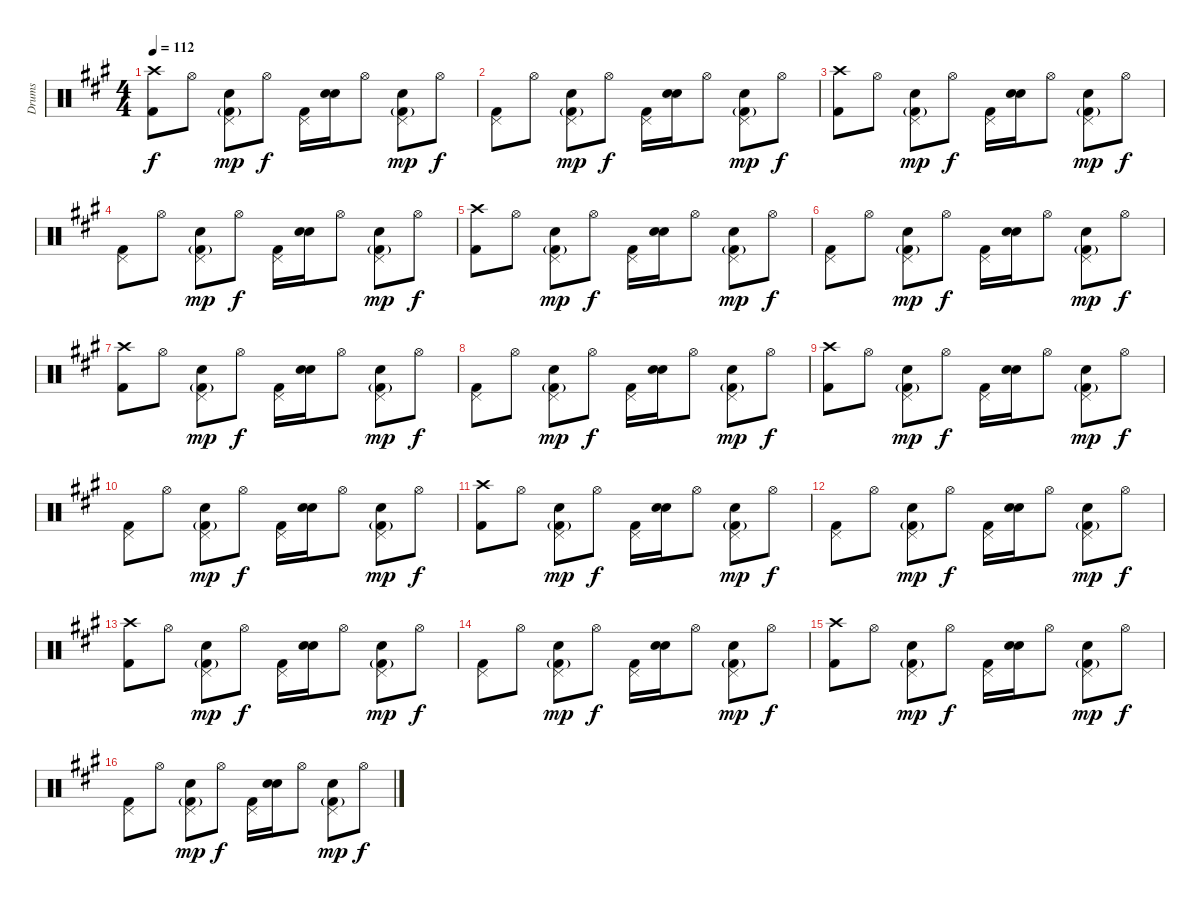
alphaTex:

\track ("Drums" "Drums") {instrument percussion}
\staff {score}
\articulation defaults
\ts (4 4)
\tempo 112
\clef neutral
\ks a
("Crash high (hit)" "Kick (hit) 2").8{dy f} "Hi-Hat (open)".8 ("Pedal Hi-Hat (hit)" "Electric Snare (hit)" "Kick (hit) 2"{g}).8{dy mp} "Hi-Hat (open)".8{dy f} ("Pedal Hi-Hat (hit)" "Kick (hit) 2").16 ("Snare (hit)"{x} "Electric Snare (hit)").16 "Hi-Hat (open)".8 ("Pedal Hi-Hat (hit)" "Electric Snare (hit)" "Kick (hit) 2"{g}).8{dy mp} "Hi-Hat (open)".8{dy f} |
("Pedal Hi-Hat (hit)" "Kick (hit) 2").8 "Hi-Hat (open)".8 ("Pedal Hi-Hat (hit)" "Electric Snare (hit)" "Kick (hit) 2"{g}).8{dy mp} "Hi-Hat (open)".8{dy f} ("Pedal Hi-Hat (hit)" "Kick (hit) 2").16 ("Snare (hit)"{x} "Electric Snare (hit)").16 "Hi-Hat (open)".8 ("Pedal Hi-Hat (hit)" "Electric Snare (hit)" "Kick (hit) 2"{g}).8{dy mp} "Hi-Hat (open)".8{dy f} |
("Crash high (hit)" "Kick (hit) 2").8 "Hi-Hat (open)".8 ("Pedal Hi-Hat (hit)" "Electric Snare (hit)" "Kick (hit) 2"{g}).8{dy mp} "Hi-Hat (open)".8{dy f} ("Pedal Hi-Hat (hit)" "Kick (hit) 2").16 ("Snare (hit)"{x} "Electric Snare (hit)").16 "Hi-Hat (open)".8 ("Pedal Hi-Hat (hit)" "Electric Snare (hit)" "Kick (hit) 2"{g}).8{dy mp} "Hi-Hat (open)".8{dy f} |
("Pedal Hi-Hat (hit)" "Kick (hit) 2").8 "Hi-Hat (open)".8 ("Pedal Hi-Hat (hit)" "Electric Snare (hit)" "Kick (hit) 2"{g}).8{dy mp} "Hi-Hat (open)".8{dy f} ("Pedal Hi-Hat (hit)" "Kick (hit) 2").16 ("Snare (hit)"{x} "Electric Snare (hit)").16 "Hi-Hat (open)".8 ("Pedal Hi-Hat (hit)" "Electric Snare (hit)" "Kick (hit) 2"{g}).8{dy mp} "Hi-Hat (open)".8{dy f} |
("Crash high (hit)" "Kick (hit) 2").8 "Hi-Hat (open)".8 ("Pedal Hi-Hat (hit)" "Electric Snare (hit)" "Kick (hit) 2"{g}).8{dy mp} "Hi-Hat (open)".8{dy f} ("Pedal Hi-Hat (hit)" "Kick (hit) 2").16 ("Snare (hit)"{x} "Electric Snare (hit)").16 "Hi-Hat (open)".8 ("Pedal Hi-Hat (hit)" "Electric Snare (hit)" "Kick (hit) 2"{g}).8{dy mp} "Hi-Hat (open)".8{dy f} |
("Pedal Hi-Hat (hit)" "Kick (hit) 2").8 "Hi-Hat (open)".8 ("Pedal Hi-Hat (hit)" "Electric Snare (hit)" "Kick (hit) 2"{g}).8{dy mp} "Hi-Hat (open)".8{dy f} ("Pedal Hi-Hat (hit)" "Kick (hit) 2").16 ("Snare (hit)"{x} "Electric Snare (hit)").16 "Hi-Hat (open)".8 ("Pedal Hi-Hat (hit)" "Electric Snare (hit)" "Kick (hit) 2"{g}).8{dy mp} "Hi-Hat (open)".8{dy f} |
("Crash high (hit)" "Kick (hit) 2").8 "Hi-Hat (open)".8 ("Pedal Hi-Hat (hit)" "Electric Snare (hit)" "Kick (hit) 2"{g}).8{dy mp} "Hi-Hat (open)".8{dy f} ("Pedal Hi-Hat (hit)" "Kick (hit) 2").16 ("Snare (hit)"{x} "Electric Snare (hit)").16 "Hi-Hat (open)".8 ("Pedal Hi-Hat (hit)" "Electric Snare (hit)" "Kick (hit) 2"{g}).8{dy mp} "Hi-Hat (open)".8{dy f} |
("Pedal Hi-Hat (hit)" "Kick (hit) 2").8 "Hi-Hat (open)".8 ("Pedal Hi-Hat (hit)" "Electric Snare (hit)" "Kick (hit) 2"{g}).8{dy mp} "Hi-Hat (open)".8{dy f} ("Pedal Hi-Hat (hit)" "Kick (hit) 2").16 ("Snare (hit)"{x} "Electric Snare (hit)").16 "Hi-Hat (open)".8 ("Pedal Hi-Hat (hit)" "Electric Snare (hit)" "Kick (hit) 2"{g}).8{dy mp} "Hi-Hat (open)".8{dy f} |
("Crash high (hit)" "Kick (hit) 2").8 "Hi-Hat (open)".8 ("Pedal Hi-Hat (hit)" "Electric Snare (hit)" "Kick (hit) 2"{g}).8{dy mp} "Hi-Hat (open)".8{dy f} ("Pedal Hi-Hat (hit)" "Kick (hit) 2").16 ("Snare (hit)"{x} "Electric Snare (hit)").16 "Hi-Hat (open)".8 ("Pedal Hi-Hat (hit)" "Electric Snare (hit)" "Kick (hit) 2"{g}).8{dy mp} "Hi-Hat (open)".8{dy f} |
("Pedal Hi-Hat (hit)" "Kick (hit) 2").8 "Hi-Hat (open)".8 ("Pedal Hi-Hat (hit)" "Electric Snare (hit)" "Kick (hit) 2"{g}).8{dy mp} "Hi-Hat (open)".8{dy f} ("Pedal Hi-Hat (hit)" "Kick (hit) 2").16 ("Snare (hit)"{x} "Electric Snare (hit)").16 "Hi-Hat (open)".8 ("Pedal Hi-Hat (hit)" "Electric Snare (hit)" "Kick (hit) 2"{g}).8{dy mp} "Hi-Hat (open)".8{dy f} |
("Crash high (hit)" "Kick (hit) 2").8 "Hi-Hat (open)".8 ("Pedal Hi-Hat (hit)" "Electric Snare (hit)" "Kick (hit) 2"{g}).8{dy mp} "Hi-Hat (open)".8{dy f} ("Pedal Hi-Hat (hit)" "Kick (hit) 2").16 ("Snare (hit)"{x} "Electric Snare (hit)").16 "Hi-Hat (open)".8 ("Pedal Hi-Hat (hit)" "Electric Snare (hit)" "Kick (hit) 2"{g}).8{dy mp} "Hi-Hat (open)".8{dy f} |
("Pedal Hi-Hat (hit)" "Kick (hit) 2").8 "Hi-Hat (open)".8 ("Pedal Hi-Hat (hit)" "Electric Snare (hit)" "Kick (hit) 2"{g}).8{dy mp} "Hi-Hat (open)".8{dy f} ("Pedal Hi-Hat (hit)" "Kick (hit) 2").16 ("Snare (hit)"{x} "Electric Snare (hit)").16 "Hi-Hat (open)".8 ("Pedal Hi-Hat (hit)" "Electric Snare (hit)" "Kick (hit) 2"{g}).8{dy mp} "Hi-Hat (open)".8{dy f} |
("Crash high (hit)" "Kick (hit) 2").8 "Hi-Hat (open)".8 ("Pedal Hi-Hat (hit)" "Electric Snare (hit)" "Kick (hit) 2"{g}).8{dy mp} "Hi-Hat (open)".8{dy f} ("Pedal Hi-Hat (hit)" "Kick (hit) 2").16 ("Snare (hit)"{x} "Electric Snare (hit)").16 "Hi-Hat (open)".8 ("Pedal Hi-Hat (hit)" "Electric Snare (hit)" "Kick (hit) 2"{g}).8{dy mp} "Hi-Hat (open)".8{dy f} |
("Pedal Hi-Hat (hit)" "Kick (hit) 2").8 "Hi-Hat (open)".8 ("Pedal Hi-Hat (hit)" "Electric Snare (hit)" "Kick (hit) 2"{g}).8{dy mp} "Hi-Hat (open)".8{dy f} ("Pedal Hi-Hat (hit)" "Kick (hit) 2").16 ("Snare (hit)"{x} "Electric Snare (hit)").16 "Hi-Hat (open)".8 ("Pedal Hi-Hat (hit)" "Electric Snare (hit)" "Kick (hit) 2"{g}).8{dy mp} "Hi-Hat (open)".8{dy f} |
("Crash high (hit)" "Kick (hit) 2").8 "Hi-Hat (open)".8 ("Pedal Hi-Hat (hit)" "Electric Snare (hit)" "Kick (hit) 2"{g}).8{dy mp} "Hi-Hat (open)".8{dy f} ("Pedal Hi-Hat (hit)" "Kick (hit) 2").16 ("Snare (hit)"{x} "Electric Snare (hit)").16 "Hi-Hat (open)".8 ("Pedal Hi-Hat (hit)" "Electric Snare (hit)" "Kick (hit) 2"{g}).8{dy mp} "Hi-Hat (open)".8{dy f} |
("Pedal Hi-Hat (hit)" "Kick (hit) 2").8 "Hi-Hat (open)".8 ("Pedal Hi-Hat (hit)" "Electric Snare (hit)" "Kick (hit) 2"{g}).8{dy mp} "Hi-Hat (open)".8{dy f} ("Pedal Hi-Hat (hit)" "Kick (hit) 2").16 ("Snare (hit)"{x} "Electric Snare (hit)").16 "Hi-Hat (open)".8 ("Pedal Hi-Hat (hit)" "Electric Snare (hit)" "Kick (hit) 2"{g}).8{dy mp} "Hi-Hat (open)".8{dy f}
